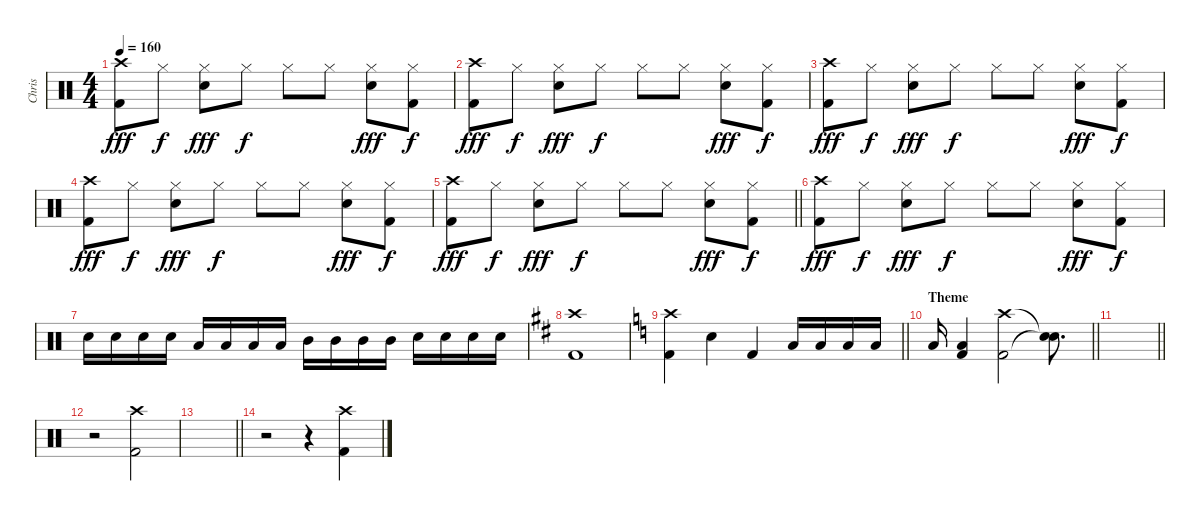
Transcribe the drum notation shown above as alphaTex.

\track ("Chris" "Chris") {instrument percussion}
\staff {score}
\articulation defaults
\ts (4 4)
\tempo 160
\clef neutral
\ks c
("Crash high (hit)" "Kick (hit) 2").8{dy fff} "Hi-Hat (closed)".8{dy f} ("Hi-Hat (closed)" "Snare (hit) 2").8{dy fff} "Hi-Hat (closed)".8{dy f} "Hi-Hat (closed)".8 "Hi-Hat (closed)".8 ("Hi-Hat (closed)" "Snare (hit) 2").8{dy fff} ("Hi-Hat (closed)" "Kick (hit) 2").8{dy f} |
("Crash high (hit)" "Kick (hit) 2").8{dy fff} "Hi-Hat (closed)".8{dy f} ("Hi-Hat (closed)" "Snare (hit) 2").8{dy fff} "Hi-Hat (closed)".8{dy f} "Hi-Hat (closed)".8 "Hi-Hat (closed)".8 ("Hi-Hat (closed)" "Snare (hit) 2").8{dy fff} ("Hi-Hat (closed)" "Kick (hit) 2").8{dy f} |
("Crash high (hit)" "Kick (hit) 2").8{dy fff} "Hi-Hat (closed)".8{dy f} ("Hi-Hat (closed)" "Snare (hit) 2").8{dy fff} "Hi-Hat (closed)".8{dy f} "Hi-Hat (closed)".8 "Hi-Hat (closed)".8 ("Hi-Hat (closed)" "Snare (hit) 2").8{dy fff} ("Hi-Hat (closed)" "Kick (hit) 2").8{dy f} |
("Crash high (hit)" "Kick (hit) 2").8{dy fff} "Hi-Hat (closed)".8{dy f} ("Hi-Hat (closed)" "Snare (hit) 2").8{dy fff} "Hi-Hat (closed)".8{dy f} "Hi-Hat (closed)".8 "Hi-Hat (closed)".8 ("Hi-Hat (closed)" "Snare (hit) 2").8{dy fff} ("Hi-Hat (closed)" "Kick (hit) 2").8{dy f} |
\barLineRight lightlight
("Crash high (hit)" "Kick (hit) 2").8{dy fff} "Hi-Hat (closed)".8{dy f} ("Hi-Hat (closed)" "Snare (hit) 2").8{dy fff} "Hi-Hat (closed)".8{dy f} "Hi-Hat (closed)".8 "Hi-Hat (closed)".8 ("Hi-Hat (closed)" "Snare (hit) 2").8{dy fff} ("Hi-Hat (closed)" "Kick (hit) 2").8{dy f} |
("Crash high (hit)" "Kick (hit) 2").8{dy fff} "Hi-Hat (closed)".8{dy f} ("Hi-Hat (closed)" "Snare (hit) 2").8{dy fff} "Hi-Hat (closed)".8{dy f} "Hi-Hat (closed)".8 "Hi-Hat (closed)".8 ("Hi-Hat (closed)" "Snare (hit) 2").8{dy fff} ("Hi-Hat (closed)" "Kick (hit) 2").8{dy f} |
"Snare (hit) 2".16 "Snare (hit) 2".16 "Snare (hit) 2".16 "Snare (hit) 2".16 "Low Tom (hit)".16 "Low Tom (hit)".16 "Low Tom (hit)".16 "Low Tom (hit)".16 "Mid Tom (hit)".16 "Mid Tom (hit)".16 "Mid Tom (hit)".16 "Mid Tom (hit)".16 "Snare (hit) 2".16 "Snare (hit) 2".16 "Snare (hit) 2".16 "Snare (hit) 2".16 |
\ks bminor
("Crash high (hit)" "Kick (hit) 2").1 |
\barLineRight lightlight
\ks c
("Crash high (hit)" "Kick (hit) 2").4 "Electric Snare (hit)".4 "Kick (hit) 2".4 "Low Tom (hit)".16 "Low Tom (hit)".16 "Low Tom (hit)".16 "Low Tom (hit)".16 |
\section ("" "Theme")
\barLineRight lightlight "Low Tom (hit)".16
("Low Tom (hit)" "Kick (hit) 2").4 ("Crash high (hit)" "Kick (hit) 2").2 ("Snare (hit)"{t} "Snare (hit)"{t}).8{d} |
\barLineRight lightlight
|
r.2 ("Crash high (hit)" "Kick (hit) 2").2 |
\barLineRight lightlight
|
r.2 r.4 ("Crash high (hit)" "Kick (hit) 2").4
